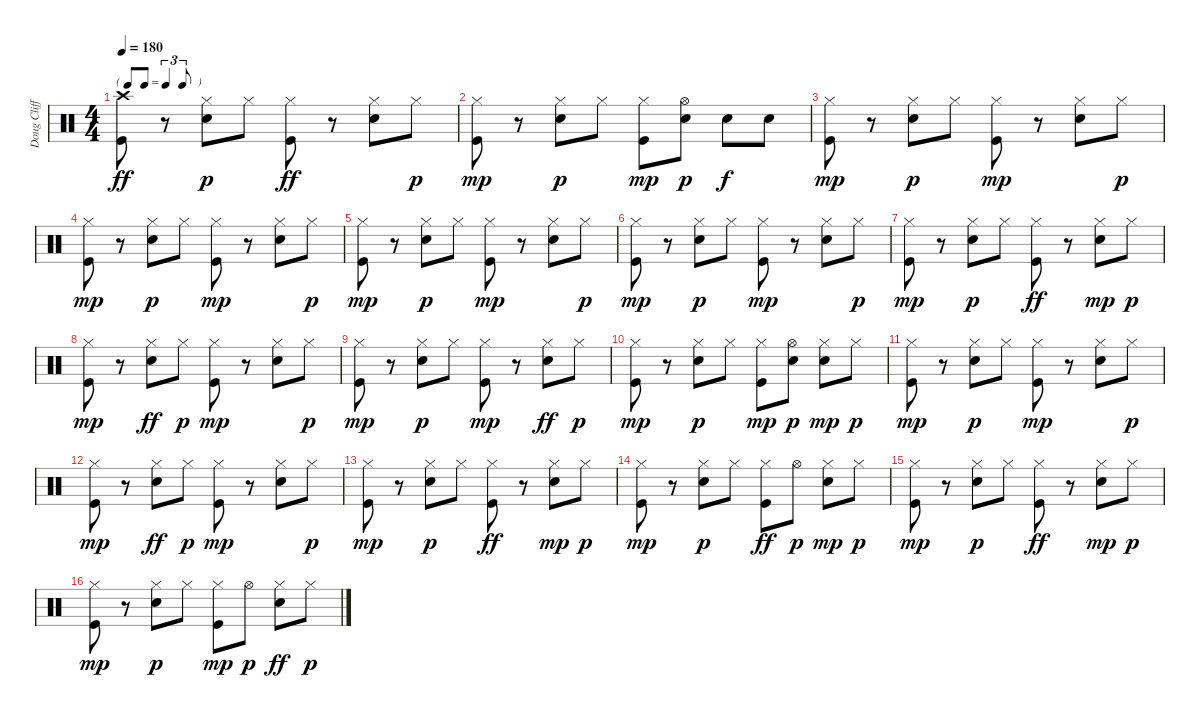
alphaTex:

\track ("Doug Clifford" "Doug Cliff") {instrument percussion}
\staff {score}
\articulation defaults
\ts (4 4)
\tf triplet8th
\tempo 180
\clef neutral
\ks c
("Crash high (hit)" "Kick (hit)").8{dy ff} r.8 ("Snare (hit) 2" "Hi-Hat (closed)").8{dy p} "Hi-Hat (closed)".8 ("Hi-Hat (closed)" "Kick (hit)").8{dy ff} r.8 ("Hi-Hat (closed)" "Snare (hit) 2").8 "Hi-Hat (closed)".8{dy p} |
("Kick (hit)" "Hi-Hat (closed)").8{dy mp} r.8 ("Snare (hit) 2" "Hi-Hat (closed)").8{dy p} "Hi-Hat (closed)".8 ("Kick (hit)" "Hi-Hat (closed)").8{dy mp} ("Hi-Hat (open)" "Snare (hit) 2").8{dy p} "Snare (hit) 2".8{dy f} "Snare (hit) 2".8 |
("Kick (hit)" "Hi-Hat (closed)").8{dy mp} r.8 ("Snare (hit) 2" "Hi-Hat (closed)").8{dy p} "Hi-Hat (closed)".8 ("Kick (hit)" "Hi-Hat (closed)").8{dy mp} r.8 ("Snare (hit) 2" "Hi-Hat (closed)").8 "Hi-Hat (closed)".8{dy p} |
("Kick (hit)" "Hi-Hat (closed)").8{dy mp} r.8 ("Snare (hit) 2" "Hi-Hat (closed)").8{dy p} "Hi-Hat (closed)".8 ("Kick (hit)" "Hi-Hat (closed)").8{dy mp} r.8 ("Snare (hit) 2" "Hi-Hat (closed)").8 "Hi-Hat (closed)".8{dy p} |
("Kick (hit)" "Hi-Hat (closed)").8{dy mp} r.8 ("Snare (hit) 2" "Hi-Hat (closed)").8{dy p} "Hi-Hat (closed)".8 ("Kick (hit)" "Hi-Hat (closed)").8{dy mp} r.8 ("Snare (hit) 2" "Hi-Hat (closed)").8 "Hi-Hat (closed)".8{dy p} |
("Kick (hit)" "Hi-Hat (closed)").8{dy mp} r.8 ("Snare (hit) 2" "Hi-Hat (closed)").8{dy p} "Hi-Hat (closed)".8 ("Kick (hit)" "Hi-Hat (closed)").8{dy mp} r.8 ("Snare (hit) 2" "Hi-Hat (closed)").8 "Hi-Hat (closed)".8{dy p} |
("Kick (hit)" "Hi-Hat (closed)").8{dy mp} r.8 ("Snare (hit) 2" "Hi-Hat (closed)").8{dy p} "Hi-Hat (closed)".8 ("Hi-Hat (closed)" "Kick (hit)").8{dy ff} r.8 ("Snare (hit) 2" "Hi-Hat (closed)").8{dy mp} "Hi-Hat (closed)".8{dy p} |
("Kick (hit)" "Hi-Hat (closed)").8{dy mp} r.8 ("Hi-Hat (closed)" "Snare (hit) 2").8{dy ff} "Hi-Hat (closed)".8{dy p} ("Kick (hit)" "Hi-Hat (closed)").8{dy mp} r.8 ("Snare (hit) 2" "Hi-Hat (closed)").8 "Hi-Hat (closed)".8{dy p} |
("Kick (hit)" "Hi-Hat (closed)").8{dy mp} r.8 ("Snare (hit) 2" "Hi-Hat (closed)").8{dy p} "Hi-Hat (closed)".8 ("Kick (hit)" "Hi-Hat (closed)").8{dy mp} r.8 ("Hi-Hat (closed)" "Snare (hit) 2").8{dy ff} "Hi-Hat (closed)".8{dy p} |
("Kick (hit)" "Hi-Hat (closed)").8{dy mp} r.8 ("Snare (hit) 2" "Hi-Hat (closed)").8{dy p} "Hi-Hat (closed)".8 ("Kick (hit)" "Hi-Hat (closed)").8{dy mp} ("Hi-Hat (open)" "Snare (hit) 2").8{dy p} ("Snare (hit) 2" "Hi-Hat (closed)").8{dy mp} "Hi-Hat (closed)".8{dy p} |
("Kick (hit)" "Hi-Hat (closed)").8{dy mp} r.8 ("Snare (hit) 2" "Hi-Hat (closed)").8{dy p} "Hi-Hat (closed)".8 ("Kick (hit)" "Hi-Hat (closed)").8{dy mp} r.8 ("Snare (hit) 2" "Hi-Hat (closed)").8 "Hi-Hat (closed)".8{dy p} |
("Kick (hit)" "Hi-Hat (closed)").8{dy mp} r.8 ("Hi-Hat (closed)" "Snare (hit) 2").8{dy ff} "Hi-Hat (closed)".8{dy p} ("Kick (hit)" "Hi-Hat (closed)").8{dy mp} r.8 ("Snare (hit) 2" "Hi-Hat (closed)").8 "Hi-Hat (closed)".8{dy p} |
("Kick (hit)" "Hi-Hat (closed)").8{dy mp} r.8 ("Snare (hit) 2" "Hi-Hat (closed)").8{dy p} "Hi-Hat (closed)".8 ("Hi-Hat (closed)" "Kick (hit)").8{dy ff} r.8 ("Snare (hit) 2" "Hi-Hat (closed)").8{dy mp} "Hi-Hat (closed)".8{dy p} |
("Kick (hit)" "Hi-Hat (closed)").8{dy mp} r.8 ("Snare (hit) 2" "Hi-Hat (closed)").8{dy p} "Hi-Hat (closed)".8 ("Hi-Hat (closed)" "Kick (hit)").8{dy ff} "Hi-Hat (open)".8{dy p} ("Snare (hit) 2" "Hi-Hat (closed)").8{dy mp} "Hi-Hat (closed)".8{dy p} |
("Kick (hit)" "Hi-Hat (closed)").8{dy mp} r.8 ("Snare (hit) 2" "Hi-Hat (closed)").8{dy p} "Hi-Hat (closed)".8 ("Hi-Hat (closed)" "Kick (hit)").8{dy ff} r.8 ("Snare (hit) 2" "Hi-Hat (closed)").8{dy mp} "Hi-Hat (closed)".8{dy p} |
("Kick (hit)" "Hi-Hat (closed)").8{dy mp} r.8 ("Snare (hit) 2" "Hi-Hat (closed)").8{dy p} "Hi-Hat (closed)".8 ("Kick (hit)" "Hi-Hat (closed)").8{dy mp} "Hi-Hat (open)".8{dy p} ("Hi-Hat (closed)" "Snare (hit) 2").8{dy ff} "Hi-Hat (closed)".8{dy p}
